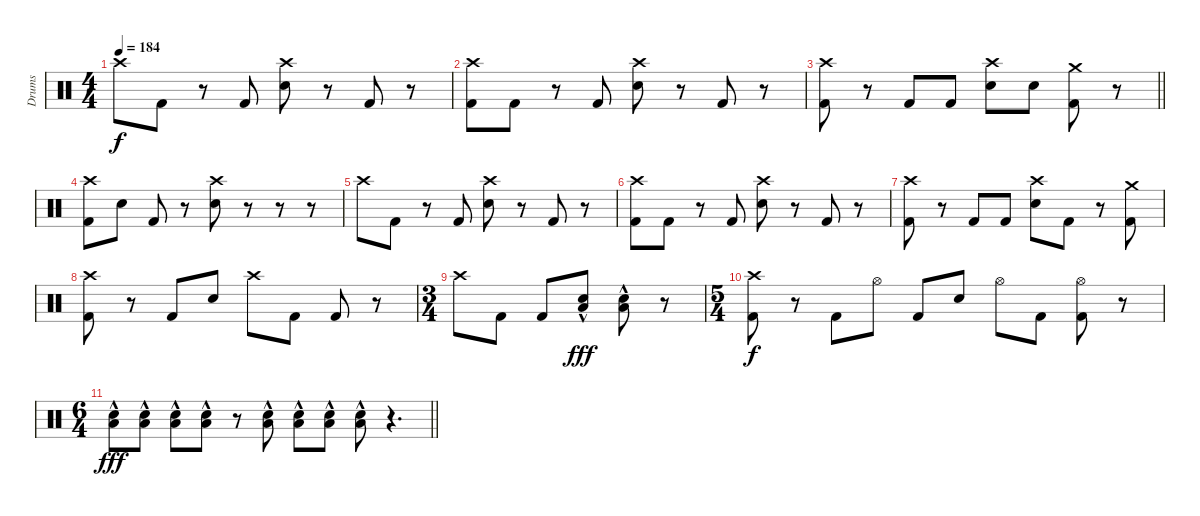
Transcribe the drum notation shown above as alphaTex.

\track ("Drums" "Drums") {instrument percussion}
\staff {score}
\articulation defaults
\ts (4 4)
\tempo 184
\clef neutral
\ks c "Crash high (hit)".8{dy f} "Kick (hit) 2".8
r.8 "Kick (hit) 2".8 ("Crash high (hit)" "Snare (hit) 2").8 r.8 "Kick (hit) 2".8 r.8 |
("Crash high (hit)" "Kick (hit) 2").8 "Kick (hit) 2".8 r.8 "Kick (hit) 2".8 ("Crash high (hit)" "Snare (hit) 2").8 r.8 "Kick (hit) 2".8 r.8 |
\barLineRight lightlight
("Crash high (hit)" "Kick (hit) 2").8 r.8 "Kick (hit) 2".8 "Kick (hit) 2".8 ("Crash high (hit)" "Snare (hit) 2").8 "Snare (hit) 2".8 ("Crash medium (hit)" "Kick (hit) 2").8 r.8 |
("Crash high (hit)" "Kick (hit) 2").8 "Snare (hit) 2".8 "Kick (hit) 2".8 r.8 ("Crash high (hit)" "Snare (hit) 2").8 r.8 r.8 r.8 |
"Crash high (hit)".8 "Kick (hit) 2".8 r.8 "Kick (hit) 2".8 ("Crash high (hit)" "Snare (hit) 2").8 r.8 "Kick (hit) 2".8 r.8 |
("Crash high (hit)" "Kick (hit) 2").8 "Kick (hit) 2".8 r.8 "Kick (hit) 2".8 ("Crash high (hit)" "Snare (hit) 2").8 r.8 "Kick (hit) 2".8 r.8 |
("Crash high (hit)" "Kick (hit) 2").8 r.8 "Kick (hit) 2".8 "Kick (hit) 2".8 ("Crash high (hit)" "Snare (hit) 2").8 "Kick (hit) 2".8 r.8 ("Crash medium (hit)" "Kick (hit) 2").8 |
("Crash high (hit)" "Kick (hit) 2").8 r.8 "Kick (hit) 2".8 "Snare (hit) 2".8 "Crash high (hit)".8 "Kick (hit) 2".8 "Kick (hit) 2".8 r.8 |
\ts (3 4)
"Crash high (hit)".8 "Kick (hit) 2".8 "Kick (hit) 2".8 ("Low Floor Tom (hit)"{hac} "Snare (hit) 2"{hac}).8{dy fff} ("Low Floor Tom (hit)"{hac} "Snare (hit) 2"{hac}).8 r.8 |
\ts (5 4)
("Crash high (hit)" "Kick (hit) 2").8{dy f} r.8 "Kick (hit) 2".8 "Hi-Hat (open)".8 "Kick (hit) 2".8 "Snare (hit) 2".8 "Hi-Hat (open)".8 "Kick (hit) 2".8 ("Hi-Hat (open)" "Kick (hit) 2").8 r.8 |
\ts (6 4)
\barLineRight lightlight
("Snare (hit) 2"{hac} "Low Floor Tom (hit)"{hac}).8{dy fff} ("Snare (hit) 2"{hac} "Low Floor Tom (hit)"{hac}).8 ("Snare (hit) 2"{hac} "Low Floor Tom (hit)"{hac}).8 ("Snare (hit) 2"{hac} "Low Floor Tom (hit)"{hac}).8 r.8 ("Snare (hit) 2"{hac} "Low Floor Tom (hit)"{hac}).8 ("Low Floor Tom (hit)"{hac} "Snare (hit) 2"{hac}).8 ("Low Floor Tom (hit)"{hac} "Snare (hit) 2"{hac}).8 ("Low Floor Tom (hit)"{hac} "Snare (hit) 2"{hac}).8 r.4{d}
